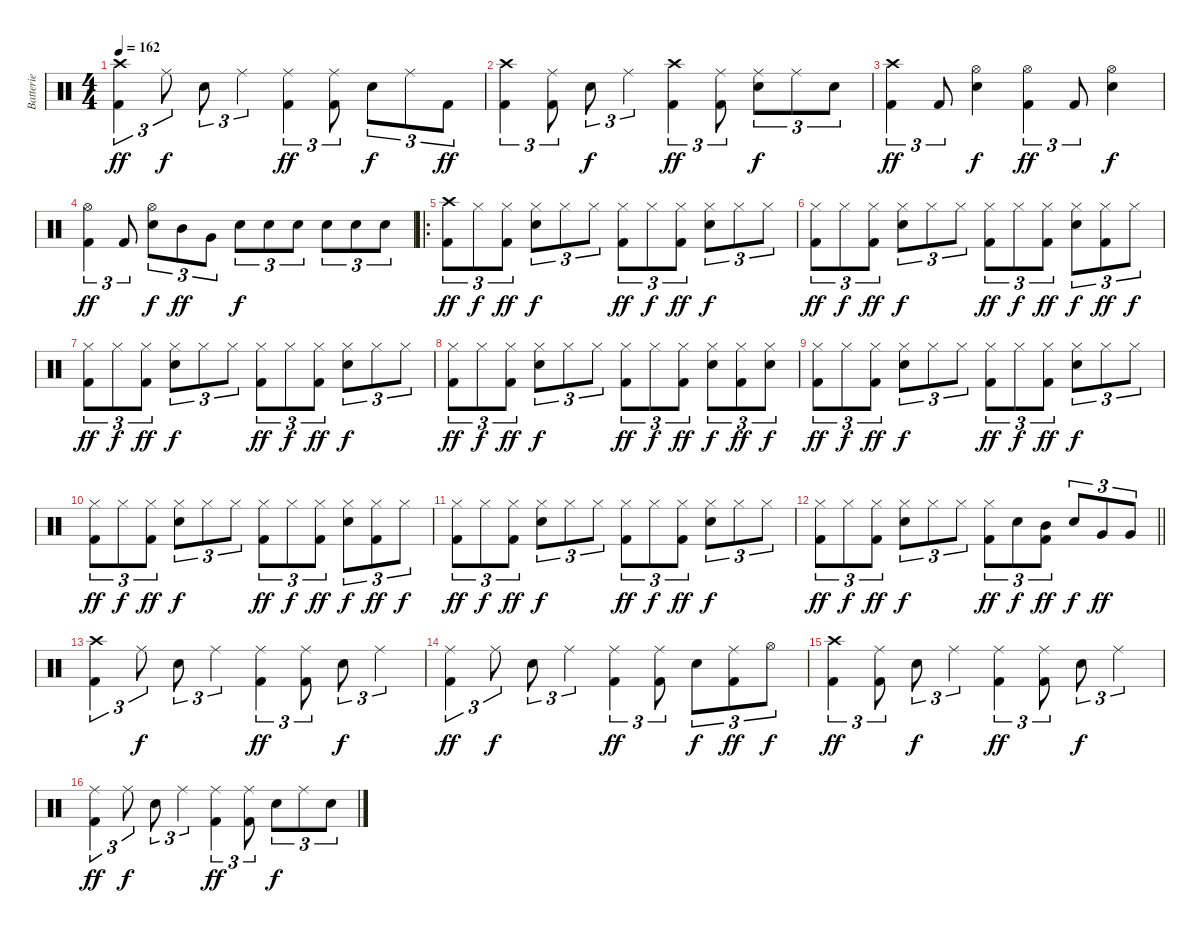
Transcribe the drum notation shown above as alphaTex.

\track ("Batterie" "Batterie") {instrument percussion}
\staff {score}
\articulation defaults
\ts (4 4)
\tempo 162
\clef neutral
\ks c
("Crash high (hit)" "Kick (hit) 2").4{tu (3 2) dy ff} "Ride (middle)".8{tu (3 2) dy f} "Snare (hit) 2".8{tu (3 2)} "Ride (middle)".4{tu (3 2)} ("Ride (middle)" "Kick (hit) 2").4{tu (3 2) dy ff} ("Ride (middle)" "Kick (hit) 2").8{tu (3 2)} "Snare (hit) 2".8{tu (3 2) dy f} "Ride (middle)".8{tu (3 2)} "Kick (hit) 2".8{tu (3 2) dy ff} |
("Crash high (hit)" "Kick (hit) 2").4{tu (3 2)} ("Ride (middle)" "Kick (hit) 2").8{tu (3 2)} "Snare (hit) 2".8{tu (3 2) dy f} "Ride (middle)".4{tu (3 2)} ("Crash high (hit)" "Kick (hit) 2").4{tu (3 2) dy ff} ("Ride (middle)" "Kick (hit) 2").8{tu (3 2)} ("Ride (middle)" "Snare (hit) 2").8{tu (3 2) dy f} "Ride (middle)".8{tu (3 2)} "Snare (hit) 2".8{tu (3 2)} |
("Crash high (hit)" "Kick (hit) 2").4{tu (3 2) dy ff} "Kick (hit) 2".8{tu (3 2)} ("Hi-Hat (open)" "Snare (hit) 2").4{dy f} ("Hi-Hat (open)" "Kick (hit) 2").4{tu (3 2) dy ff} "Kick (hit) 2".8{tu (3 2)} ("Hi-Hat (open)" "Snare (hit) 2").4{dy f} |
("Hi-Hat (open)" "Kick (hit) 2").4{tu (3 2) dy ff} "Kick (hit) 2".8{tu (3 2)} ("Hi-Hat (open)" "Snare (hit) 2").8{tu (3 2) dy f} "Mid Tom (hit)".8{tu (3 2) dy ff} "Very Low Tom (hit)".8{tu (3 2)} "Snare (hit) 2".8{tu (3 2) dy f} "Snare (hit) 2".8{tu (3 2)} "Snare (hit) 2".8{tu (3 2)} "Snare (hit) 2".8{tu (3 2)} "Snare (hit) 2".8{tu (3 2)} "Snare (hit) 2".8{tu (3 2)} |
\ro
("Crash high (hit)" "Kick (hit) 2").8{tu (3 2) dy ff} "Hi-Hat (closed)".8{tu (3 2) dy f} ("Hi-Hat (closed)" "Kick (hit) 2").8{tu (3 2) dy ff} ("Hi-Hat (closed)" "Snare (hit) 2").8{tu (3 2) dy f} "Hi-Hat (closed)".8{tu (3 2)} "Hi-Hat (closed)".8{tu (3 2)} ("Hi-Hat (closed)" "Kick (hit) 2").8{tu (3 2) dy ff} "Hi-Hat (closed)".8{tu (3 2) dy f} ("Hi-Hat (closed)" "Kick (hit) 2").8{tu (3 2) dy ff} ("Hi-Hat (closed)" "Snare (hit) 2").8{tu (3 2) dy f} "Hi-Hat (closed)".8{tu (3 2)} "Hi-Hat (closed)".8{tu (3 2)} |
("Hi-Hat (closed)" "Kick (hit) 2").8{tu (3 2) dy ff} "Hi-Hat (closed)".8{tu (3 2) dy f} ("Hi-Hat (closed)" "Kick (hit) 2").8{tu (3 2) dy ff} ("Hi-Hat (closed)" "Snare (hit) 2").8{tu (3 2) dy f} "Hi-Hat (closed)".8{tu (3 2)} "Hi-Hat (closed)".8{tu (3 2)} ("Hi-Hat (closed)" "Kick (hit) 2").8{tu (3 2) dy ff} "Hi-Hat (closed)".8{tu (3 2) dy f} ("Hi-Hat (closed)" "Kick (hit) 2").8{tu (3 2) dy ff} ("Hi-Hat (closed)" "Snare (hit) 2").8{tu (3 2) dy f} ("Hi-Hat (closed)" "Kick (hit) 2").8{tu (3 2) dy ff} "Hi-Hat (closed)".8{tu (3 2) dy f} |
("Hi-Hat (closed)" "Kick (hit) 2").8{tu (3 2) dy ff} "Hi-Hat (closed)".8{tu (3 2) dy f} ("Hi-Hat (closed)" "Kick (hit) 2").8{tu (3 2) dy ff} ("Hi-Hat (closed)" "Snare (hit) 2").8{tu (3 2) dy f} "Hi-Hat (closed)".8{tu (3 2)} "Hi-Hat (closed)".8{tu (3 2)} ("Hi-Hat (closed)" "Kick (hit) 2").8{tu (3 2) dy ff} "Hi-Hat (closed)".8{tu (3 2) dy f} ("Hi-Hat (closed)" "Kick (hit) 2").8{tu (3 2) dy ff} ("Hi-Hat (closed)" "Snare (hit) 2").8{tu (3 2) dy f} "Hi-Hat (closed)".8{tu (3 2)} "Hi-Hat (closed)".8{tu (3 2)} |
("Hi-Hat (closed)" "Kick (hit) 2").8{tu (3 2) dy ff} "Hi-Hat (closed)".8{tu (3 2) dy f} ("Hi-Hat (closed)" "Kick (hit) 2").8{tu (3 2) dy ff} ("Hi-Hat (closed)" "Snare (hit) 2").8{tu (3 2) dy f} "Hi-Hat (closed)".8{tu (3 2)} "Hi-Hat (closed)".8{tu (3 2)} ("Hi-Hat (closed)" "Kick (hit) 2").8{tu (3 2) dy ff} "Hi-Hat (closed)".8{tu (3 2) dy f} ("Hi-Hat (closed)" "Kick (hit) 2").8{tu (3 2) dy ff} ("Hi-Hat (closed)" "Snare (hit) 2").8{tu (3 2) dy f} ("Hi-Hat (closed)" "Kick (hit) 2").8{tu (3 2) dy ff} ("Hi-Hat (closed)" "Snare (hit) 2").8{tu (3 2) dy f} |
("Hi-Hat (closed)" "Kick (hit) 2").8{tu (3 2) dy ff} "Hi-Hat (closed)".8{tu (3 2) dy f} ("Hi-Hat (closed)" "Kick (hit) 2").8{tu (3 2) dy ff} ("Hi-Hat (closed)" "Snare (hit) 2").8{tu (3 2) dy f} "Hi-Hat (closed)".8{tu (3 2)} "Hi-Hat (closed)".8{tu (3 2)} ("Hi-Hat (closed)" "Kick (hit) 2").8{tu (3 2) dy ff} "Hi-Hat (closed)".8{tu (3 2) dy f} ("Hi-Hat (closed)" "Kick (hit) 2").8{tu (3 2) dy ff} ("Hi-Hat (closed)" "Snare (hit) 2").8{tu (3 2) dy f} "Hi-Hat (closed)".8{tu (3 2)} "Hi-Hat (closed)".8{tu (3 2)} |
("Hi-Hat (closed)" "Kick (hit) 2").8{tu (3 2) dy ff} "Hi-Hat (closed)".8{tu (3 2) dy f} ("Hi-Hat (closed)" "Kick (hit) 2").8{tu (3 2) dy ff} ("Hi-Hat (closed)" "Snare (hit) 2").8{tu (3 2) dy f} "Hi-Hat (closed)".8{tu (3 2)} "Hi-Hat (closed)".8{tu (3 2)} ("Hi-Hat (closed)" "Kick (hit) 2").8{tu (3 2) dy ff} "Hi-Hat (closed)".8{tu (3 2) dy f} ("Hi-Hat (closed)" "Kick (hit) 2").8{tu (3 2) dy ff} ("Hi-Hat (closed)" "Snare (hit) 2").8{tu (3 2) dy f} ("Hi-Hat (closed)" "Kick (hit) 2").8{tu (3 2) dy ff} "Hi-Hat (closed)".8{tu (3 2) dy f} |
("Hi-Hat (closed)" "Kick (hit) 2").8{tu (3 2) dy ff} "Hi-Hat (closed)".8{tu (3 2) dy f} ("Hi-Hat (closed)" "Kick (hit) 2").8{tu (3 2) dy ff} ("Hi-Hat (closed)" "Snare (hit) 2").8{tu (3 2) dy f} "Hi-Hat (closed)".8{tu (3 2)} "Hi-Hat (closed)".8{tu (3 2)} ("Hi-Hat (closed)" "Kick (hit) 2").8{tu (3 2) dy ff} "Hi-Hat (closed)".8{tu (3 2) dy f} ("Hi-Hat (closed)" "Kick (hit) 2").8{tu (3 2) dy ff} ("Hi-Hat (closed)" "Snare (hit) 2").8{tu (3 2) dy f} "Hi-Hat (closed)".8{tu (3 2)} "Hi-Hat (closed)".8{tu (3 2)} |
\barLineRight lightlight
("Hi-Hat (closed)" "Kick (hit) 2").8{tu (3 2) dy ff} "Hi-Hat (closed)".8{tu (3 2) dy f} ("Hi-Hat (closed)" "Kick (hit) 2").8{tu (3 2) dy ff} ("Hi-Hat (closed)" "Snare (hit) 2").8{tu (3 2) dy f} "Hi-Hat (closed)".8{tu (3 2)} "Hi-Hat (closed)".8{tu (3 2)} ("Hi-Hat (closed)" "Kick (hit) 2").8{tu (3 2) dy ff} "Snare (hit) 2".8{tu (3 2) dy f} ("Mid Tom (hit)" "Kick (hit) 2").8{tu (3 2) dy ff} "Snare (hit) 2".8{tu (3 2) dy f} "Very Low Tom (hit)".8{tu (3 2) dy ff} "Very Low Tom (hit)".8{tu (3 2)} |
("Crash high (hit)" "Kick (hit) 2").4{tu (3 2)} "Ride (middle)".8{tu (3 2) dy f} "Snare (hit) 2".8{tu (3 2)} "Ride (middle)".4{tu (3 2)} ("Ride (middle)" "Kick (hit) 2").4{tu (3 2) dy ff} ("Ride (middle)" "Kick (hit) 2").8{tu (3 2)} "Snare (hit) 2".8{tu (3 2) dy f} "Ride (middle)".4{tu (3 2)} |
("Ride (middle)" "Kick (hit) 2").4{tu (3 2) dy ff} "Ride (middle)".8{tu (3 2) dy f} "Snare (hit) 2".8{tu (3 2)} "Ride (middle)".4{tu (3 2)} ("Ride (middle)" "Kick (hit) 2").4{tu (3 2) dy ff} ("Ride (middle)" "Kick (hit) 2").8{tu (3 2)} "Snare (hit) 2".8{tu (3 2) dy f} ("Ride (middle)" "Kick (hit) 2").8{tu (3 2) dy ff} "Hi-Hat (open)".8{tu (3 2) dy f} |
("Crash high (hit)" "Kick (hit) 2").4{tu (3 2) dy ff} ("Ride (middle)" "Kick (hit) 2").8{tu (3 2)} "Snare (hit) 2".8{tu (3 2) dy f} "Ride (middle)".4{tu (3 2)} ("Ride (middle)" "Kick (hit) 2").4{tu (3 2) dy ff} ("Ride (middle)" "Kick (hit) 2").8{tu (3 2)} "Snare (hit) 2".8{tu (3 2) dy f} "Ride (middle)".4{tu (3 2)} |
("Ride (middle)" "Kick (hit) 2").4{tu (3 2) dy ff} "Ride (middle)".8{tu (3 2) dy f} "Snare (hit) 2".8{tu (3 2)} "Ride (middle)".4{tu (3 2)} ("Ride (middle)" "Kick (hit) 2").4{tu (3 2) dy ff} ("Ride (middle)" "Kick (hit) 2").8{tu (3 2)} "Snare (hit) 2".8{tu (3 2) dy f} "Ride (middle)".8{tu (3 2)} "Snare (hit) 2".8{tu (3 2)}
